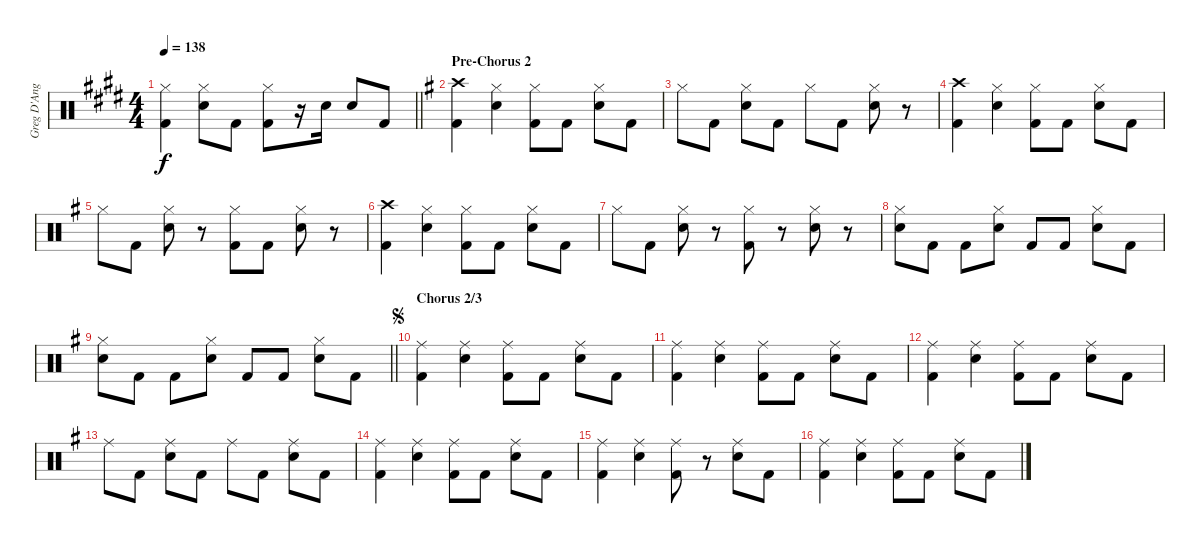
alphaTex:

\track ("Greg D'Angelo" "Greg D'Ang") {instrument percussion}
\staff {score}
\articulation defaults
\ts (4 4)
\tempo 138
\clef neutral
\barLineRight lightlight
\ks c#minor
("Hi-Hat (closed)" "Kick (hit) 2").4{dy f} ("Hi-Hat (closed)" "Snare (hit) 2").8 "Kick (hit) 2".8 ("Hi-Hat (closed)" "Kick (hit) 2").8 r.16 "Snare (hit) 2".16 "Snare (hit) 2".8 "Kick (hit) 2".8 |
\section ("" "Pre-Chorus 2")
\ks g
("Crash high (hit)" "Kick (hit) 2").4 ("Hi-Hat (closed)" "Snare (hit) 2").4 ("Hi-Hat (closed)" "Kick (hit) 2").8 "Kick (hit) 2".8 ("Hi-Hat (closed)" "Snare (hit) 2").8 "Kick (hit) 2".8 |
"Hi-Hat (closed)".8 "Kick (hit) 2".8 ("Hi-Hat (closed)" "Snare (hit) 2").8 "Kick (hit) 2".8 "Hi-Hat (closed)".8 "Kick (hit) 2".8 ("Hi-Hat (closed)" "Snare (hit) 2").8 r.8 |
("Crash high (hit)" "Kick (hit) 2").4 ("Hi-Hat (closed)" "Snare (hit) 2").4 ("Hi-Hat (closed)" "Kick (hit) 2").8 "Kick (hit) 2".8 ("Hi-Hat (closed)" "Snare (hit) 2").8 "Kick (hit) 2".8 |
"Hi-Hat (closed)".8 "Kick (hit) 2".8 ("Hi-Hat (closed)" "Snare (hit) 2").8 r.8 ("Hi-Hat (closed)" "Kick (hit) 2").8 "Kick (hit) 2".8 ("Hi-Hat (closed)" "Snare (hit) 2").8 r.8 |
("Crash high (hit)" "Kick (hit) 2").4 ("Hi-Hat (closed)" "Snare (hit) 2").4 ("Hi-Hat (closed)" "Kick (hit) 2").8 "Kick (hit) 2".8 ("Hi-Hat (closed)" "Snare (hit) 2").8 "Kick (hit) 2".8 |
"Hi-Hat (closed)".8 "Kick (hit) 2".8 ("Hi-Hat (closed)" "Snare (hit) 2").8 r.8 ("Hi-Hat (closed)" "Kick (hit) 2").8 r.8 ("Hi-Hat (closed)" "Snare (hit) 2").8 r.8 |
("Hi-Hat (closed)" "Snare (hit) 2").8 "Kick (hit) 2".8 "Kick (hit) 2".8 ("Hi-Hat (closed)" "Snare (hit) 2").8 "Kick (hit) 2".8 "Kick (hit) 2".8 ("Hi-Hat (closed)" "Snare (hit) 2").8 "Kick (hit) 2".8 |
\barLineRight lightlight
("Hi-Hat (closed)" "Snare (hit) 2").8 "Kick (hit) 2".8 "Kick (hit) 2".8 ("Hi-Hat (closed)" "Snare (hit) 2").8 "Kick (hit) 2".8 "Kick (hit) 2".8 ("Hi-Hat (closed)" "Snare (hit) 2").8 "Kick (hit) 2".8 |
\section ("" "Chorus 2/3")
\jump segno
("Ride (middle)" "Kick (hit) 2").4 ("Ride (middle)" "Snare (hit) 2").4 ("Ride (middle)" "Kick (hit) 2").8 "Kick (hit) 2".8 ("Ride (middle)" "Snare (hit) 2").8 "Kick (hit) 2".8 |
("Ride (middle)" "Kick (hit) 2").4 ("Ride (middle)" "Snare (hit) 2").4 ("Ride (middle)" "Kick (hit) 2").8 "Kick (hit) 2".8 ("Ride (middle)" "Snare (hit) 2").8 "Kick (hit) 2".8 |
("Ride (middle)" "Kick (hit) 2").4 ("Ride (middle)" "Snare (hit) 2").4 ("Ride (middle)" "Kick (hit) 2").8 "Kick (hit) 2".8 ("Ride (middle)" "Snare (hit) 2").8 "Kick (hit) 2".8 |
"Ride (middle)".8 "Kick (hit) 2".8 ("Ride (middle)" "Snare (hit) 2").8 "Kick (hit) 2".8 "Ride (middle)".8 "Kick (hit) 2".8 ("Ride (middle)" "Snare (hit) 2").8 "Kick (hit) 2".8 |
("Ride (middle)" "Kick (hit) 2").4 ("Ride (middle)" "Snare (hit) 2").4 ("Ride (middle)" "Kick (hit) 2").8 "Kick (hit) 2".8 ("Ride (middle)" "Snare (hit) 2").8 "Kick (hit) 2".8 |
("Ride (middle)" "Kick (hit) 2").4 ("Ride (middle)" "Snare (hit) 2").4 ("Ride (middle)" "Kick (hit) 2").8 r.8 ("Ride (middle)" "Snare (hit) 2").8 "Kick (hit) 2".8 |
("Ride (middle)" "Kick (hit) 2").4 ("Ride (middle)" "Snare (hit) 2").4 ("Ride (middle)" "Kick (hit) 2").8 "Kick (hit) 2".8 ("Ride (middle)" "Snare (hit) 2").8 "Kick (hit) 2".8
